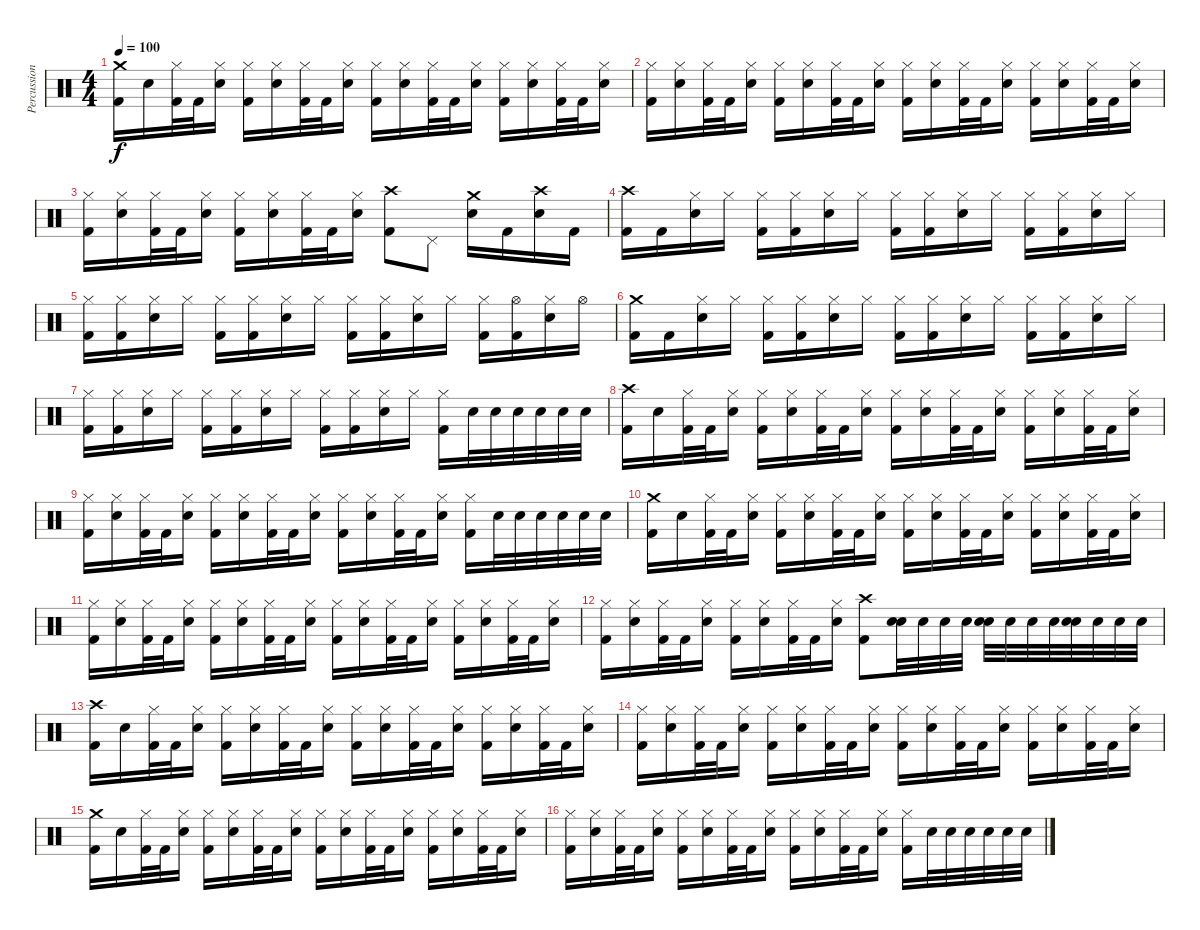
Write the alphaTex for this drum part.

\track ("Percussion" "Percussion") {instrument percussion}
\staff {score}
\articulation defaults
\ts (4 4)
\tempo 100
\clef neutral
\ks c
("Crash medium (hit)" "Kick (hit) 2").16{dy f} "Snare (hit) 2".16 ("Hi-Hat (closed)" "Kick (hit) 2").32 "Kick (hit) 2".32 ("Hi-Hat (closed)" "Snare (hit) 2").16 ("Hi-Hat (closed)" "Kick (hit) 2").16 ("Hi-Hat (closed)" "Snare (hit) 2").16 ("Hi-Hat (closed)" "Kick (hit) 2").32 "Kick (hit) 2".32 ("Hi-Hat (closed)" "Snare (hit) 2").16 ("Hi-Hat (closed)" "Kick (hit) 2").16 ("Hi-Hat (closed)" "Snare (hit) 2").16 ("Hi-Hat (closed)" "Kick (hit) 2").32 "Kick (hit) 2".32 ("Hi-Hat (closed)" "Snare (hit) 2").16 ("Hi-Hat (closed)" "Kick (hit) 2").16 ("Hi-Hat (closed)" "Snare (hit) 2").16 ("Hi-Hat (closed)" "Kick (hit) 2").32 "Kick (hit) 2".32 ("Hi-Hat (closed)" "Snare (hit) 2").16 |
("Hi-Hat (closed)" "Kick (hit) 2").16 ("Hi-Hat (closed)" "Snare (hit) 2").16 ("Hi-Hat (closed)" "Kick (hit) 2").32 "Kick (hit) 2".32 ("Hi-Hat (closed)" "Snare (hit) 2").16 ("Hi-Hat (closed)" "Kick (hit) 2").16 ("Hi-Hat (closed)" "Snare (hit) 2").16 ("Hi-Hat (closed)" "Kick (hit) 2").32 "Kick (hit) 2".32 ("Hi-Hat (closed)" "Snare (hit) 2").16 ("Hi-Hat (closed)" "Kick (hit) 2").16 ("Hi-Hat (closed)" "Snare (hit) 2").16 ("Hi-Hat (closed)" "Kick (hit) 2").32 "Kick (hit) 2".32 ("Hi-Hat (closed)" "Snare (hit) 2").16 ("Hi-Hat (closed)" "Kick (hit) 2").16 ("Hi-Hat (closed)" "Snare (hit) 2").16 ("Hi-Hat (closed)" "Kick (hit) 2").32 "Kick (hit) 2".32 ("Hi-Hat (closed)" "Snare (hit) 2").16 |
("Hi-Hat (closed)" "Kick (hit) 2").16 ("Hi-Hat (closed)" "Snare (hit) 2").16 ("Hi-Hat (closed)" "Kick (hit) 2").32 "Kick (hit) 2".32 ("Hi-Hat (closed)" "Snare (hit) 2").16 ("Hi-Hat (closed)" "Kick (hit) 2").16 ("Hi-Hat (closed)" "Snare (hit) 2").16 ("Hi-Hat (closed)" "Kick (hit) 2").32 "Kick (hit) 2".32 ("Hi-Hat (closed)" "Snare (hit) 2").16 ("Crash high (hit)" "Kick (hit) 2").8 "Pedal Hi-Hat (hit)".8 ("Crash medium (hit)" "Snare (hit) 2").16 "Kick (hit) 2".16 ("Crash high (hit)" "Snare (hit) 2").16 "Kick (hit) 2".16 |
("Crash high (hit)" "Kick (hit) 2").16 "Kick (hit) 2".16 ("Hi-Hat (closed)" "Snare (hit) 2").16 "Hi-Hat (closed)".16 ("Hi-Hat (closed)" "Kick (hit) 2").16 ("Hi-Hat (closed)" "Kick (hit) 2").16 ("Hi-Hat (closed)" "Snare (hit) 2").16 "Hi-Hat (closed)".16 ("Hi-Hat (closed)" "Kick (hit) 2").16 ("Hi-Hat (closed)" "Kick (hit) 2").16 ("Hi-Hat (closed)" "Snare (hit) 2").16 "Hi-Hat (closed)".16 ("Hi-Hat (closed)" "Kick (hit) 2").16 ("Hi-Hat (closed)" "Kick (hit) 2").16 ("Hi-Hat (closed)" "Snare (hit) 2").16 "Hi-Hat (closed)".16 |
("Hi-Hat (closed)" "Kick (hit) 2").16 ("Hi-Hat (closed)" "Kick (hit) 2").16 ("Hi-Hat (closed)" "Snare (hit) 2").16 "Hi-Hat (closed)".16 ("Hi-Hat (closed)" "Kick (hit) 2").16 ("Hi-Hat (closed)" "Kick (hit) 2").16 ("Hi-Hat (closed)" "Snare (hit) 2").16 "Hi-Hat (closed)".16 ("Hi-Hat (closed)" "Kick (hit) 2").16 ("Hi-Hat (closed)" "Kick (hit) 2").16 ("Hi-Hat (closed)" "Snare (hit) 2").16 "Hi-Hat (closed)".16 ("Hi-Hat (closed)" "Kick (hit) 2").16 ("Hi-Hat (open)" "Kick (hit) 2").16 ("Hi-Hat (closed)" "Snare (hit) 2").16 "Hi-Hat (open)".16 |
("Crash medium (hit)" "Kick (hit) 2").16 "Kick (hit) 2".16 ("Hi-Hat (closed)" "Snare (hit) 2").16 "Hi-Hat (closed)".16 ("Hi-Hat (closed)" "Kick (hit) 2").16 ("Hi-Hat (closed)" "Kick (hit) 2").16 ("Hi-Hat (closed)" "Snare (hit) 2").16 "Hi-Hat (closed)".16 ("Hi-Hat (closed)" "Kick (hit) 2").16 ("Hi-Hat (closed)" "Kick (hit) 2").16 ("Hi-Hat (closed)" "Snare (hit) 2").16 "Hi-Hat (closed)".16 ("Hi-Hat (closed)" "Kick (hit) 2").16 ("Hi-Hat (closed)" "Kick (hit) 2").16 ("Hi-Hat (closed)" "Snare (hit) 2").16 "Hi-Hat (closed)".16 |
("Hi-Hat (closed)" "Kick (hit) 2").16 ("Hi-Hat (closed)" "Kick (hit) 2").16 ("Hi-Hat (closed)" "Snare (hit) 2").16 "Hi-Hat (closed)".16 ("Hi-Hat (closed)" "Kick (hit) 2").16 ("Hi-Hat (closed)" "Kick (hit) 2").16 ("Hi-Hat (closed)" "Snare (hit) 2").16 "Hi-Hat (closed)".16 ("Hi-Hat (closed)" "Kick (hit) 2").16 ("Hi-Hat (closed)" "Kick (hit) 2").16 ("Hi-Hat (closed)" "Snare (hit) 2").16 "Hi-Hat (closed)".16 ("Hi-Hat (closed)" "Kick (hit) 2").16 "Snare (hit) 2".32 "Snare (hit) 2".32 "Snare (hit) 2".32 "Snare (hit) 2".32 "Snare (hit) 2".32 "Snare (hit) 2".32 |
("Crash high (hit)" "Kick (hit) 2").16 "Snare (hit) 2".16 ("Hi-Hat (closed)" "Kick (hit) 2").32 "Kick (hit) 2".32 ("Hi-Hat (closed)" "Snare (hit) 2").16 ("Hi-Hat (closed)" "Kick (hit) 2").16 ("Hi-Hat (closed)" "Snare (hit) 2").16 ("Hi-Hat (closed)" "Kick (hit) 2").32 "Kick (hit) 2".32 ("Hi-Hat (closed)" "Snare (hit) 2").16 ("Hi-Hat (closed)" "Kick (hit) 2").16 ("Hi-Hat (closed)" "Snare (hit) 2").16 ("Hi-Hat (closed)" "Kick (hit) 2").32 "Kick (hit) 2".32 ("Hi-Hat (closed)" "Snare (hit) 2").16 ("Hi-Hat (closed)" "Kick (hit) 2").16 ("Hi-Hat (closed)" "Snare (hit) 2").16 ("Hi-Hat (closed)" "Kick (hit) 2").32 "Kick (hit) 2".32 ("Hi-Hat (closed)" "Snare (hit) 2").16 |
("Hi-Hat (closed)" "Kick (hit) 2").16 ("Hi-Hat (closed)" "Snare (hit) 2").16 ("Hi-Hat (closed)" "Kick (hit) 2").32 "Kick (hit) 2".32 ("Hi-Hat (closed)" "Snare (hit) 2").16 ("Hi-Hat (closed)" "Kick (hit) 2").16 ("Hi-Hat (closed)" "Snare (hit) 2").16 ("Hi-Hat (closed)" "Kick (hit) 2").32 "Kick (hit) 2".32 ("Hi-Hat (closed)" "Snare (hit) 2").16 ("Hi-Hat (closed)" "Kick (hit) 2").16 ("Hi-Hat (closed)" "Snare (hit) 2").16 ("Hi-Hat (closed)" "Kick (hit) 2").32 "Kick (hit) 2".32 ("Hi-Hat (closed)" "Snare (hit) 2").16 ("Hi-Hat (closed)" "Kick (hit) 2").16 "Snare (hit) 2".32 "Snare (hit) 2".32 "Snare (hit) 2".32 "Snare (hit) 2".32 "Snare (hit) 2".32 "Snare (hit) 2".32 |
("Crash medium (hit)" "Kick (hit) 2").16 "Snare (hit) 2".16 ("Hi-Hat (closed)" "Kick (hit) 2").32 "Kick (hit) 2".32 ("Hi-Hat (closed)" "Snare (hit) 2").16 ("Hi-Hat (closed)" "Kick (hit) 2").16 ("Hi-Hat (closed)" "Snare (hit) 2").16 ("Hi-Hat (closed)" "Kick (hit) 2").32 "Kick (hit) 2".32 ("Hi-Hat (closed)" "Snare (hit) 2").16 ("Hi-Hat (closed)" "Kick (hit) 2").16 ("Hi-Hat (closed)" "Snare (hit) 2").16 ("Hi-Hat (closed)" "Kick (hit) 2").32 "Kick (hit) 2".32 ("Hi-Hat (closed)" "Snare (hit) 2").16 ("Hi-Hat (closed)" "Kick (hit) 2").16 ("Hi-Hat (closed)" "Snare (hit) 2").16 ("Hi-Hat (closed)" "Kick (hit) 2").32 "Kick (hit) 2".32 ("Hi-Hat (closed)" "Snare (hit) 2").16 |
("Hi-Hat (closed)" "Kick (hit) 2").16 ("Hi-Hat (closed)" "Snare (hit) 2").16 ("Hi-Hat (closed)" "Kick (hit) 2").32 "Kick (hit) 2".32 ("Hi-Hat (closed)" "Snare (hit) 2").16 ("Hi-Hat (closed)" "Kick (hit) 2").16 ("Hi-Hat (closed)" "Snare (hit) 2").16 ("Hi-Hat (closed)" "Kick (hit) 2").32 "Kick (hit) 2".32 ("Hi-Hat (closed)" "Snare (hit) 2").16 ("Hi-Hat (closed)" "Kick (hit) 2").16 ("Hi-Hat (closed)" "Snare (hit) 2").16 ("Hi-Hat (closed)" "Kick (hit) 2").32 "Kick (hit) 2".32 ("Hi-Hat (closed)" "Snare (hit) 2").16 ("Hi-Hat (closed)" "Kick (hit) 2").16 ("Hi-Hat (closed)" "Snare (hit) 2").16 ("Hi-Hat (closed)" "Kick (hit) 2").32 "Kick (hit) 2".32 ("Hi-Hat (closed)" "Snare (hit) 2").16 |
("Hi-Hat (closed)" "Kick (hit) 2").16 ("Hi-Hat (closed)" "Snare (hit) 2").16 ("Hi-Hat (closed)" "Kick (hit) 2").32 "Kick (hit) 2".32 ("Hi-Hat (closed)" "Snare (hit) 2").16 ("Hi-Hat (closed)" "Kick (hit) 2").16 ("Hi-Hat (closed)" "Snare (hit) 2").16 ("Hi-Hat (closed)" "Kick (hit) 2").32 "Kick (hit) 2".32 ("Hi-Hat (closed)" "Snare (hit) 2").16 ("Crash high (hit)" "Kick (hit) 2").8 ("Snare (hit) 2" "Snare (hit) 2").32 "Snare (hit) 2".32 "Snare (hit) 2".32 "Snare (hit) 2".32 ("Snare (hit) 2" "Snare (hit) 2").32 "Snare (hit) 2".32 "Snare (hit) 2".32 "Snare (hit) 2".32 ("Snare (hit) 2" "Snare (hit) 2").32 "Snare (hit) 2".32 "Snare (hit) 2".32 "Snare (hit) 2".32 |
("Crash high (hit)" "Kick (hit) 2").16 "Snare (hit) 2".16 ("Hi-Hat (closed)" "Kick (hit) 2").32 "Kick (hit) 2".32 ("Hi-Hat (closed)" "Snare (hit) 2").16 ("Hi-Hat (closed)" "Kick (hit) 2").16 ("Hi-Hat (closed)" "Snare (hit) 2").16 ("Hi-Hat (closed)" "Kick (hit) 2").32 "Kick (hit) 2".32 ("Hi-Hat (closed)" "Snare (hit) 2").16 ("Hi-Hat (closed)" "Kick (hit) 2").16 ("Hi-Hat (closed)" "Snare (hit) 2").16 ("Hi-Hat (closed)" "Kick (hit) 2").32 "Kick (hit) 2".32 ("Hi-Hat (closed)" "Snare (hit) 2").16 ("Hi-Hat (closed)" "Kick (hit) 2").16 ("Hi-Hat (closed)" "Snare (hit) 2").16 ("Hi-Hat (closed)" "Kick (hit) 2").32 "Kick (hit) 2".32 ("Hi-Hat (closed)" "Snare (hit) 2").16 |
("Hi-Hat (closed)" "Kick (hit) 2").16 ("Hi-Hat (closed)" "Snare (hit) 2").16 ("Hi-Hat (closed)" "Kick (hit) 2").32 "Kick (hit) 2".32 ("Hi-Hat (closed)" "Snare (hit) 2").16 ("Hi-Hat (closed)" "Kick (hit) 2").16 ("Hi-Hat (closed)" "Snare (hit) 2").16 ("Hi-Hat (closed)" "Kick (hit) 2").32 "Kick (hit) 2".32 ("Hi-Hat (closed)" "Snare (hit) 2").16 ("Hi-Hat (closed)" "Kick (hit) 2").16 ("Hi-Hat (closed)" "Snare (hit) 2").16 ("Hi-Hat (closed)" "Kick (hit) 2").32 "Kick (hit) 2".32 ("Hi-Hat (closed)" "Snare (hit) 2").16 ("Hi-Hat (closed)" "Kick (hit) 2").16 ("Hi-Hat (closed)" "Snare (hit) 2").16 ("Hi-Hat (closed)" "Kick (hit) 2").32 "Kick (hit) 2".32 ("Hi-Hat (closed)" "Snare (hit) 2").16 |
("Crash medium (hit)" "Kick (hit) 2").16 "Snare (hit) 2".16 ("Hi-Hat (closed)" "Kick (hit) 2").32 "Kick (hit) 2".32 ("Hi-Hat (closed)" "Snare (hit) 2").16 ("Hi-Hat (closed)" "Kick (hit) 2").16 ("Hi-Hat (closed)" "Snare (hit) 2").16 ("Hi-Hat (closed)" "Kick (hit) 2").32 "Kick (hit) 2".32 ("Hi-Hat (closed)" "Snare (hit) 2").16 ("Hi-Hat (closed)" "Kick (hit) 2").16 ("Hi-Hat (closed)" "Snare (hit) 2").16 ("Hi-Hat (closed)" "Kick (hit) 2").32 "Kick (hit) 2".32 ("Hi-Hat (closed)" "Snare (hit) 2").16 ("Hi-Hat (closed)" "Kick (hit) 2").16 ("Hi-Hat (closed)" "Snare (hit) 2").16 ("Hi-Hat (closed)" "Kick (hit) 2").32 "Kick (hit) 2".32 ("Hi-Hat (closed)" "Snare (hit) 2").16 |
("Hi-Hat (closed)" "Kick (hit) 2").16 ("Hi-Hat (closed)" "Snare (hit) 2").16 ("Hi-Hat (closed)" "Kick (hit) 2").32 "Kick (hit) 2".32 ("Hi-Hat (closed)" "Snare (hit) 2").16 ("Hi-Hat (closed)" "Kick (hit) 2").16 ("Hi-Hat (closed)" "Snare (hit) 2").16 ("Hi-Hat (closed)" "Kick (hit) 2").32 "Kick (hit) 2".32 ("Hi-Hat (closed)" "Snare (hit) 2").16 ("Hi-Hat (closed)" "Kick (hit) 2").16 ("Hi-Hat (closed)" "Snare (hit) 2").16 ("Hi-Hat (closed)" "Kick (hit) 2").32 "Kick (hit) 2".32 ("Hi-Hat (closed)" "Snare (hit) 2").16 ("Hi-Hat (closed)" "Kick (hit) 2").16 "Snare (hit) 2".32 "Snare (hit) 2".32 "Snare (hit) 2".32 "Snare (hit) 2".32 "Snare (hit) 2".32 "Snare (hit) 2".32
